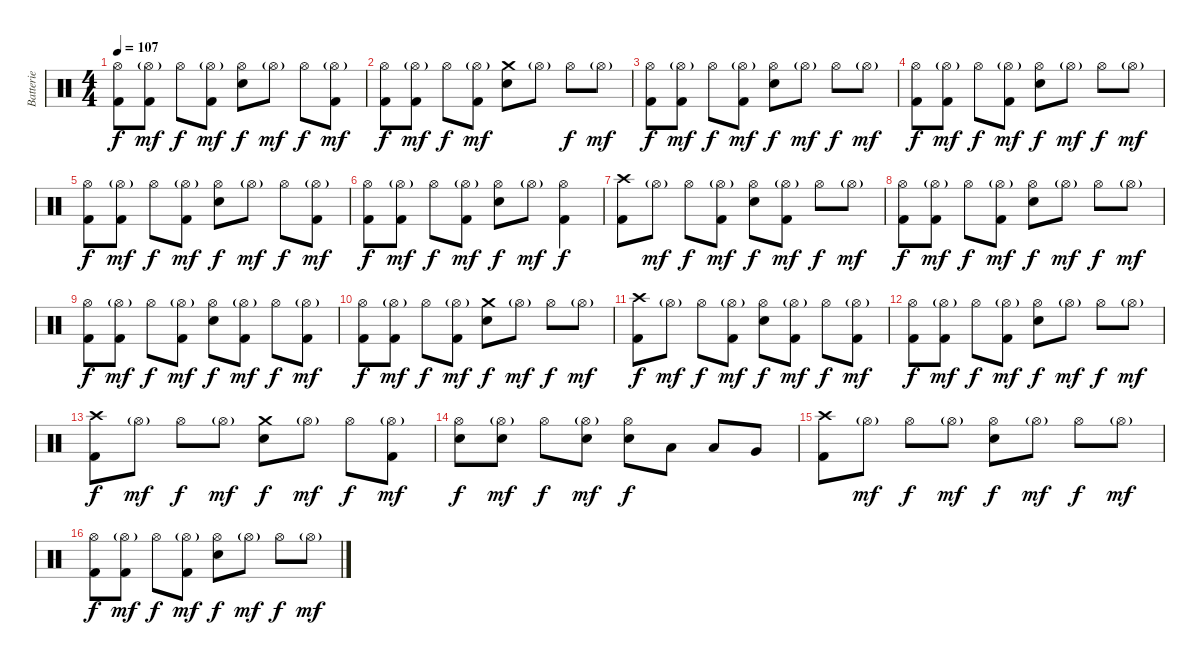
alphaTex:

\track ("Batterie" "Batterie") {instrument percussion}
\staff {score}
\articulation defaults
\ts (4 4)
\tempo 107
\clef neutral
\ks c
("Hi-Hat (open)" "Kick (hit) 2").8{dy f} ("Hi-Hat (open)"{g} "Kick (hit) 2").8{dy mf} "Hi-Hat (open)".8{dy f} ("Hi-Hat (open)"{g} "Kick (hit) 2").8{dy mf} ("Hi-Hat (open)" "Electric Snare (hit)").8{dy f} "Hi-Hat (open)"{g}.8{dy mf} "Hi-Hat (open)".8{dy f} ("Hi-Hat (open)"{g} "Kick (hit) 2").8{dy mf} |
("Hi-Hat (open)" "Kick (hit) 2").8{dy f} ("Hi-Hat (open)"{g} "Kick (hit) 2").8{dy mf} "Hi-Hat (open)".8{dy f} ("Hi-Hat (open)"{g} "Kick (hit) 2").8{dy mf} ("Crash medium (hit)" "Electric Snare (hit)").8 "Hi-Hat (open)"{g}.8 "Hi-Hat (open)".8{dy f} "Hi-Hat (open)"{g}.8{dy mf} |
("Hi-Hat (open)" "Kick (hit) 2").8{dy f} ("Hi-Hat (open)"{g} "Kick (hit) 2").8{dy mf} "Hi-Hat (open)".8{dy f} ("Hi-Hat (open)"{g} "Kick (hit) 2").8{dy mf} ("Hi-Hat (open)" "Electric Snare (hit)").8{dy f} "Hi-Hat (open)"{g}.8{dy mf} "Hi-Hat (open)".8{dy f} "Hi-Hat (open)"{g}.8{dy mf} |
("Hi-Hat (open)" "Kick (hit) 2").8{dy f} ("Hi-Hat (open)"{g} "Kick (hit) 2").8{dy mf} "Hi-Hat (open)".8{dy f} ("Hi-Hat (open)"{g} "Kick (hit) 2").8{dy mf} ("Hi-Hat (open)" "Electric Snare (hit)").8{dy f} "Hi-Hat (open)"{g}.8{dy mf} "Hi-Hat (open)".8{dy f} "Hi-Hat (open)"{g}.8{dy mf} |
("Hi-Hat (open)" "Kick (hit) 2").8{dy f} ("Hi-Hat (open)"{g} "Kick (hit) 2").8{dy mf} "Hi-Hat (open)".8{dy f} ("Hi-Hat (open)"{g} "Kick (hit) 2").8{dy mf} ("Hi-Hat (open)" "Electric Snare (hit)").8{dy f} "Hi-Hat (open)"{g}.8{dy mf} "Hi-Hat (open)".8{dy f} ("Hi-Hat (open)"{g} "Kick (hit) 2").8{dy mf} |
("Hi-Hat (open)" "Kick (hit) 2").8{dy f} ("Hi-Hat (open)"{g} "Kick (hit) 2").8{dy mf} "Hi-Hat (open)".8{dy f} ("Hi-Hat (open)"{g} "Kick (hit) 2").8{dy mf} ("Hi-Hat (open)" "Electric Snare (hit)").8{dy f} "Hi-Hat (open)"{g}.8{dy mf} ("Hi-Hat (open)" "Kick (hit) 2").4{dy f} |
("Crash high (hit)" "Kick (hit) 2").8 "Hi-Hat (open)"{g}.8{dy mf} "Hi-Hat (open)".8{dy f} ("Hi-Hat (open)"{g} "Kick (hit) 2").8{dy mf} ("Hi-Hat (open)" "Electric Snare (hit)").8{dy f} ("Hi-Hat (open)"{g} "Kick (hit) 2").8{dy mf} "Hi-Hat (open)".8{dy f} "Hi-Hat (open)"{g}.8{dy mf} |
("Hi-Hat (open)" "Kick (hit) 2").8{dy f} ("Hi-Hat (open)"{g} "Kick (hit) 2").8{dy mf} "Hi-Hat (open)".8{dy f} ("Hi-Hat (open)"{g} "Kick (hit) 2").8{dy mf} ("Hi-Hat (open)" "Electric Snare (hit)").8{dy f} "Hi-Hat (open)"{g}.8{dy mf} "Hi-Hat (open)".8{dy f} "Hi-Hat (open)"{g}.8{dy mf} |
("Hi-Hat (open)" "Kick (hit) 2").8{dy f} ("Hi-Hat (open)"{g} "Kick (hit) 2").8{dy mf} "Hi-Hat (open)".8{dy f} ("Hi-Hat (open)"{g} "Kick (hit) 2").8{dy mf} ("Hi-Hat (open)" "Electric Snare (hit)").8{dy f} ("Hi-Hat (open)"{g} "Kick (hit) 2").8{dy mf} "Hi-Hat (open)".8{dy f} ("Hi-Hat (open)"{g} "Kick (hit) 2").8{dy mf} |
("Hi-Hat (open)" "Kick (hit) 2").8{dy f} ("Hi-Hat (open)"{g} "Kick (hit) 2").8{dy mf} "Hi-Hat (open)".8{dy f} ("Hi-Hat (open)"{g} "Kick (hit) 2").8{dy mf} ("Crash medium (hit)" "Electric Snare (hit)").8{dy f} "Hi-Hat (open)"{g}.8{dy mf} "Hi-Hat (open)".8{dy f} "Hi-Hat (open)"{g}.8{dy mf} |
("Crash high (hit)" "Kick (hit) 2").8{dy f} "Hi-Hat (open)"{g}.8{dy mf} "Hi-Hat (open)".8{dy f} ("Hi-Hat (open)"{g} "Kick (hit) 2").8{dy mf} ("Hi-Hat (open)" "Electric Snare (hit)").8{dy f} ("Hi-Hat (open)"{g} "Kick (hit) 2").8{dy mf} "Hi-Hat (open)".8{dy f} ("Hi-Hat (open)"{g} "Kick (hit) 2").8{dy mf} |
("Hi-Hat (open)" "Kick (hit) 2").8{dy f} ("Hi-Hat (open)"{g} "Kick (hit) 2").8{dy mf} "Hi-Hat (open)".8{dy f} ("Hi-Hat (open)"{g} "Kick (hit) 2").8{dy mf} ("Hi-Hat (open)" "Electric Snare (hit)").8{dy f} "Hi-Hat (open)"{g}.8{dy mf} "Hi-Hat (open)".8{dy f} "Hi-Hat (open)"{g}.8{dy mf} |
("Crash high (hit)" "Kick (hit) 2").8{dy f} "Hi-Hat (open)"{g}.8{dy mf} "Hi-Hat (open)".8{dy f} "Hi-Hat (open)"{g}.8{dy mf} ("Crash medium (hit)" "Electric Snare (hit)").8{dy f} "Hi-Hat (open)"{g}.8{dy mf} "Hi-Hat (open)".8{dy f} ("Hi-Hat (open)"{g} "Kick (hit) 2").8{dy mf} |
("Hi-Hat (open)" "Electric Snare (hit)").8{dy f} ("Hi-Hat (open)"{g} "Electric Snare (hit)").8{dy mf} "Hi-Hat (open)".8{dy f} ("Hi-Hat (open)"{g} "Electric Snare (hit)").8{dy mf} ("Hi-Hat (open)" "Electric Snare (hit)").8{dy f} "Low Tom (hit)".8 "Low Tom (hit)".8 "Very Low Tom (hit)".8 |
("Crash high (hit)" "Kick (hit) 2").8 "Hi-Hat (open)"{g}.8{dy mf} "Hi-Hat (open)".8{dy f} "Hi-Hat (open)"{g}.8{dy mf} ("Hi-Hat (open)" "Electric Snare (hit)").8{dy f} "Hi-Hat (open)"{g}.8{dy mf} "Hi-Hat (open)".8{dy f} "Hi-Hat (open)"{g}.8{dy mf} |
("Hi-Hat (open)" "Kick (hit) 2").8{dy f} ("Hi-Hat (open)"{g} "Kick (hit) 2").8{dy mf} "Hi-Hat (open)".8{dy f} ("Hi-Hat (open)"{g} "Kick (hit) 2").8{dy mf} ("Hi-Hat (open)" "Electric Snare (hit)").8{dy f} "Hi-Hat (open)"{g}.8{dy mf} "Hi-Hat (open)".8{dy f} "Hi-Hat (open)"{g}.8{dy mf}
